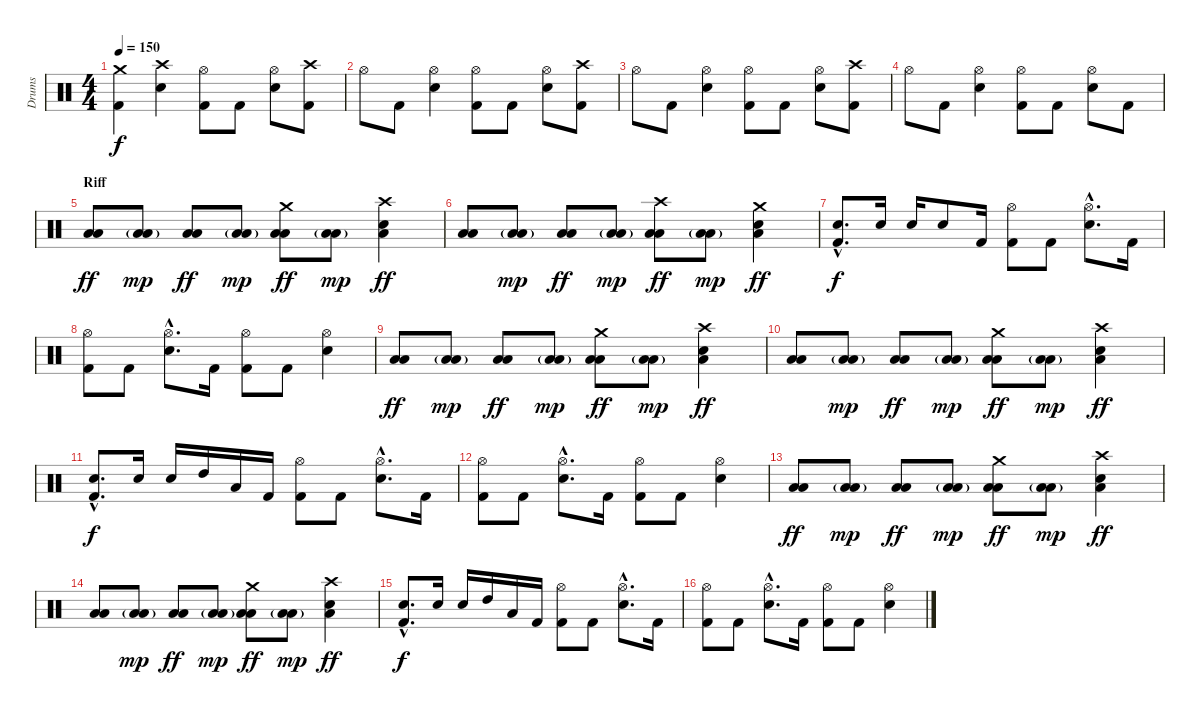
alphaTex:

\track ("Drums" "Drums") {instrument percussion}
\staff {score}
\articulation defaults
\ts (4 4)
\section ("" "")
\tempo 150
\clef neutral
\ks c
("Crash medium (hit)" "Kick (hit) 2").4{dy f} ("Crash high (hit)" "Snare (hit) 2").4 ("Hi-Hat (open)" "Kick (hit) 2").8 "Kick (hit) 2".8 ("Hi-Hat (open)" "Snare (hit) 2").8 ("Crash high (hit)" "Kick (hit) 2").8 |
"Hi-Hat (open)".8 "Kick (hit) 2".8 ("Hi-Hat (open)" "Snare (hit) 2").4 ("Hi-Hat (open)" "Kick (hit) 2").8 "Kick (hit) 2".8 ("Hi-Hat (open)" "Snare (hit) 2").8 ("Crash high (hit)" "Kick (hit) 2").8 |
"Hi-Hat (open)".8 "Kick (hit) 2".8 ("Hi-Hat (open)" "Snare (hit) 2").4 ("Hi-Hat (open)" "Kick (hit) 2").8 "Kick (hit) 2".8 ("Hi-Hat (open)" "Snare (hit) 2").8 ("Crash high (hit)" "Kick (hit) 2").8 |
"Hi-Hat (open)".8 "Kick (hit) 2".8 ("Hi-Hat (open)" "Snare (hit) 2").4 ("Hi-Hat (open)" "Kick (hit) 2").8 "Kick (hit) 2".8 ("Hi-Hat (open)" "Snare (hit) 2").8 "Kick (hit) 2".8 |
\section ("" "Riff")
("Low Tom (hit)" "Low Floor Tom (hit)").8{dy ff} ("Low Tom (hit)"{g} "Low Floor Tom (hit)"{g}).8{dy mp} ("Low Tom (hit)" "Low Floor Tom (hit)").8{dy ff} ("Low Tom (hit)"{g} "Low Floor Tom (hit)"{g}).8{dy mp} ("Crash medium (hit)" "Low Tom (hit)" "Low Floor Tom (hit)").8{dy ff} ("Low Tom (hit)"{g} "Low Floor Tom (hit)"{g}).8{dy mp} ("Crash high (hit)" "Snare (hit) 2" "Low Floor Tom (hit)").4{dy ff} |
("Low Tom (hit)" "Low Floor Tom (hit)").8 ("Low Tom (hit)"{g} "Low Floor Tom (hit)"{g}).8{dy mp} ("Low Tom (hit)" "Low Floor Tom (hit)").8{dy ff} ("Low Tom (hit)"{g} "Low Floor Tom (hit)"{g}).8{dy mp} ("Crash high (hit)" "Low Tom (hit)" "Low Floor Tom (hit)").8{dy ff} ("Low Tom (hit)"{g} "Low Floor Tom (hit)"{g}).8{dy mp} ("Crash medium (hit)" "Snare (hit) 2" "Low Floor Tom (hit)").4{dy ff} |
("Snare (hit) 2"{hac} "Kick (hit) 2"{hac}).8{d dy f} "Snare (hit) 2".16 "Snare (hit) 2".16 "Snare (hit) 2".8 "Kick (hit) 2".16 ("Hi-Hat (open)" "Kick (hit) 2").8 "Kick (hit) 2".8 ("Hi-Hat (open)"{hac} "Snare (hit) 2"{hac}).8{d} "Kick (hit) 2".16 |
("Hi-Hat (open)" "Kick (hit) 2").8 "Kick (hit) 2".8 ("Hi-Hat (open)"{hac} "Snare (hit) 2"{hac}).8{d} "Kick (hit) 2".16 ("Hi-Hat (open)" "Kick (hit) 2").8 "Kick (hit) 2".8 ("Hi-Hat (open)" "Snare (hit) 2").4 |
\section ("" "")
("Low Tom (hit)" "Low Floor Tom (hit)").8{dy ff} ("Low Tom (hit)"{g} "Low Floor Tom (hit)"{g}).8{dy mp} ("Low Tom (hit)" "Low Floor Tom (hit)").8{dy ff} ("Low Tom (hit)"{g} "Low Floor Tom (hit)"{g}).8{dy mp} ("Crash medium (hit)" "Low Tom (hit)" "Low Floor Tom (hit)").8{dy ff} ("Low Tom (hit)"{g} "Low Floor Tom (hit)"{g}).8{dy mp} ("Crash high (hit)" "Snare (hit) 2" "Low Floor Tom (hit)").4{dy ff} |
("Low Tom (hit)" "Low Floor Tom (hit)").8 ("Low Tom (hit)"{g} "Low Floor Tom (hit)"{g}).8{dy mp} ("Low Tom (hit)" "Low Floor Tom (hit)").8{dy ff} ("Low Tom (hit)"{g} "Low Floor Tom (hit)"{g}).8{dy mp} ("Crash medium (hit)" "Low Tom (hit)" "Low Floor Tom (hit)").8{dy ff} ("Low Tom (hit)"{g} "Low Floor Tom (hit)"{g}).8{dy mp} ("Crash high (hit)" "Snare (hit) 2" "Low Floor Tom (hit)").4{dy ff} |
("Snare (hit) 2"{hac} "Kick (hit) 2"{hac}).8{d dy f} "Snare (hit) 2".16 "Snare (hit) 2".16 "High Tom (hit)".16 "Low Tom (hit)".16 "Kick (hit) 2".16 ("Hi-Hat (open)" "Kick (hit) 2").8 "Kick (hit) 2".8 ("Hi-Hat (open)"{hac} "Snare (hit) 2"{hac}).8{d} "Kick (hit) 2".16 |
("Hi-Hat (open)" "Kick (hit) 2").8 "Kick (hit) 2".8 ("Hi-Hat (open)"{hac} "Snare (hit) 2"{hac}).8{d} "Kick (hit) 2".16 ("Hi-Hat (open)" "Kick (hit) 2").8 "Kick (hit) 2".8 ("Hi-Hat (open)" "Snare (hit) 2").4 |
\section ("" "")
("Low Tom (hit)" "Low Floor Tom (hit)").8{dy ff} ("Low Tom (hit)"{g} "Low Floor Tom (hit)"{g}).8{dy mp} ("Low Tom (hit)" "Low Floor Tom (hit)").8{dy ff} ("Low Tom (hit)"{g} "Low Floor Tom (hit)"{g}).8{dy mp} ("Crash medium (hit)" "Low Tom (hit)" "Low Floor Tom (hit)").8{dy ff} ("Low Tom (hit)"{g} "Low Floor Tom (hit)"{g}).8{dy mp} ("Crash high (hit)" "Snare (hit) 2" "Low Floor Tom (hit)").4{dy ff} |
("Low Tom (hit)" "Low Floor Tom (hit)").8 ("Low Tom (hit)"{g} "Low Floor Tom (hit)"{g}).8{dy mp} ("Low Tom (hit)" "Low Floor Tom (hit)").8{dy ff} ("Low Tom (hit)"{g} "Low Floor Tom (hit)"{g}).8{dy mp} ("Crash medium (hit)" "Low Tom (hit)" "Low Floor Tom (hit)").8{dy ff} ("Low Tom (hit)"{g} "Low Floor Tom (hit)"{g}).8{dy mp} ("Crash high (hit)" "Snare (hit) 2" "Low Floor Tom (hit)").4{dy ff} |
("Snare (hit) 2"{hac} "Kick (hit) 2"{hac}).8{d dy f} "Snare (hit) 2".16 "Snare (hit) 2".16 "High Tom (hit)".16 "Low Tom (hit)".16 "Kick (hit) 2".16 ("Hi-Hat (open)" "Kick (hit) 2").8 "Kick (hit) 2".8 ("Hi-Hat (open)"{hac} "Snare (hit) 2"{hac}).8{d} "Kick (hit) 2".16 |
("Hi-Hat (open)" "Kick (hit) 2").8 "Kick (hit) 2".8 ("Hi-Hat (open)"{hac} "Snare (hit) 2"{hac}).8{d} "Kick (hit) 2".16 ("Hi-Hat (open)" "Kick (hit) 2").8 "Kick (hit) 2".8 ("Hi-Hat (open)" "Snare (hit) 2").4
